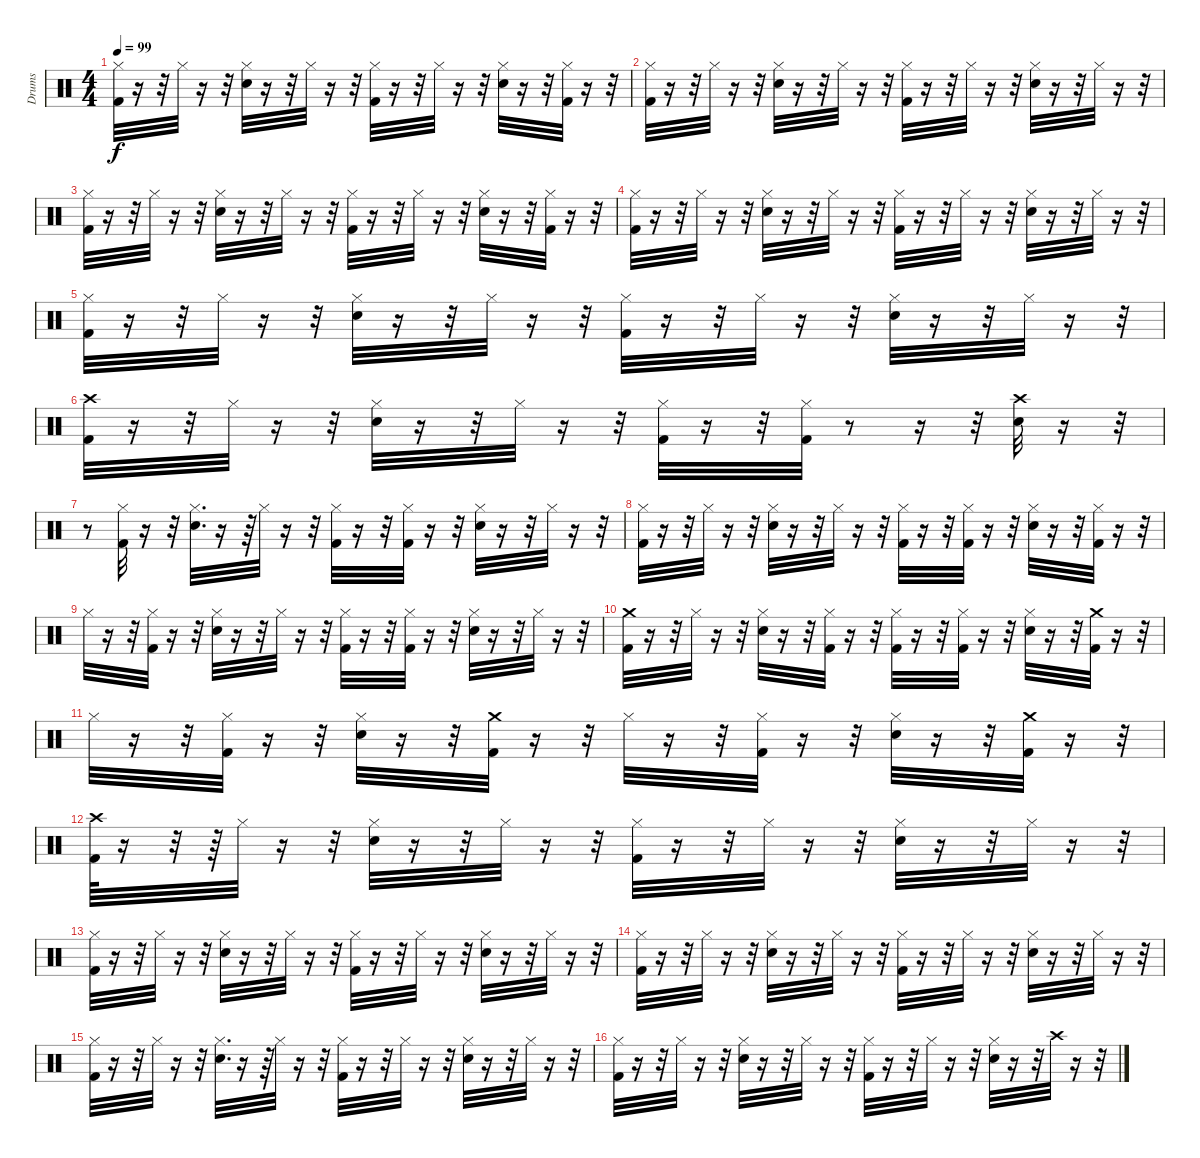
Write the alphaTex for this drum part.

\track ("Drums" "Drums") {instrument percussion}
\staff {score}
\articulation defaults
\ts (4 4)
\tempo 99
\clef neutral
\ks c
("Hi-Hat (closed)" "Kick (hit) 2").32{dy f} r.16 r.32 "Hi-Hat (closed)".32 r.16 r.32 ("Hi-Hat (closed)" "Snare (hit) 2").32 r.16 r.32 "Hi-Hat (closed)".32 r.16 r.32 ("Hi-Hat (closed)" "Kick (hit) 2").32 r.16 r.32 "Hi-Hat (closed)".32 r.16 r.32 ("Hi-Hat (closed)" "Snare (hit) 2").32 r.16 r.32 ("Hi-Hat (closed)" "Kick (hit) 2").32 r.16 r.32 |
("Hi-Hat (closed)" "Kick (hit) 2").32 r.16 r.32 "Hi-Hat (closed)".32 r.16 r.32 ("Hi-Hat (closed)" "Snare (hit) 2").32 r.16 r.32 "Hi-Hat (closed)".32 r.16 r.32 ("Hi-Hat (closed)" "Kick (hit) 2").32 r.16 r.32 "Hi-Hat (closed)".32 r.16 r.32 ("Hi-Hat (closed)" "Snare (hit) 2").32 r.16 r.32 "Hi-Hat (closed)".32 r.16 r.32 |
("Hi-Hat (closed)" "Kick (hit) 2").32 r.16 r.32 "Hi-Hat (closed)".32 r.16 r.32 ("Hi-Hat (closed)" "Snare (hit) 2").32 r.16 r.32 "Hi-Hat (closed)".32 r.16 r.32 ("Hi-Hat (closed)" "Kick (hit) 2").32 r.16 r.32 "Hi-Hat (closed)".32 r.16 r.32 ("Hi-Hat (closed)" "Snare (hit) 2").32 r.16 r.32 ("Hi-Hat (closed)" "Kick (hit) 2").32 r.16 r.32 |
("Hi-Hat (closed)" "Kick (hit) 2").32 r.16 r.32 "Hi-Hat (closed)".32 r.16 r.32 ("Hi-Hat (closed)" "Snare (hit) 2").32 r.16 r.32 "Hi-Hat (closed)".32 r.16 r.32 ("Hi-Hat (closed)" "Kick (hit) 2").32 r.16 r.32 "Hi-Hat (closed)".32 r.16 r.32 ("Hi-Hat (closed)" "Snare (hit) 2").32 r.16 r.32 "Hi-Hat (closed)".32 r.16 r.32 |
("Hi-Hat (closed)" "Kick (hit) 2").32 r.16 r.32 "Hi-Hat (closed)".32 r.16 r.32 ("Hi-Hat (closed)" "Snare (hit) 2").32 r.16 r.32 "Hi-Hat (closed)".32 r.16 r.32 ("Hi-Hat (closed)" "Kick (hit) 2").32 r.16 r.32 "Hi-Hat (closed)".32 r.16 r.32 ("Hi-Hat (closed)" "Snare (hit) 2").32 r.16 r.32 "Hi-Hat (closed)".32 r.16 r.32 |
("Crash high (hit)" "Kick (hit) 2").32 r.16 r.32 "Hi-Hat (closed)".32 r.16 r.32 ("Hi-Hat (closed)" "Snare (hit) 2").32 r.16 r.32 "Hi-Hat (closed)".32 r.16 r.32 ("Hi-Hat (closed)" "Kick (hit) 2").32 r.16 r.32 ("Hi-Hat (closed)" "Kick (hit) 2").32 r.8 r.16 r.32 ("Crash high (hit)" "Snare (hit) 2").32 r.16 r.32 |
r.8 ("Hi-Hat (closed)" "Kick (hit) 2").32 r.16 r.32 ("Hi-Hat (closed)" "Snare (hit) 2").32{d} r.16 r.64 "Hi-Hat (closed)".32 r.16 r.32 ("Hi-Hat (closed)" "Kick (hit) 2").32 r.16 r.32 ("Hi-Hat (closed)" "Kick (hit) 2").32 r.16 r.32 ("Hi-Hat (closed)" "Snare (hit) 2").32 r.16 r.32 "Hi-Hat (closed)".32 r.16 r.32 |
("Hi-Hat (closed)" "Kick (hit) 2").32 r.16 r.32 "Hi-Hat (closed)".32 r.16 r.32 ("Hi-Hat (closed)" "Snare (hit) 2").32 r.16 r.32 "Hi-Hat (closed)".32 r.16 r.32 ("Hi-Hat (closed)" "Kick (hit) 2").32 r.16 r.32 ("Hi-Hat (closed)" "Kick (hit) 2").32 r.16 r.32 ("Hi-Hat (closed)" "Snare (hit) 2").32 r.16 r.32 ("Hi-Hat (closed)" "Kick (hit) 2").32 r.16 r.32 |
"Hi-Hat (closed)".32 r.16 r.32 ("Hi-Hat (closed)" "Kick (hit) 2").32 r.16 r.32 ("Hi-Hat (closed)" "Snare (hit) 2").32 r.16 r.32 "Hi-Hat (closed)".32 r.16 r.32 ("Hi-Hat (closed)" "Kick (hit) 2").32 r.16 r.32 ("Hi-Hat (closed)" "Kick (hit) 2").32 r.16 r.32 ("Hi-Hat (closed)" "Snare (hit) 2").32 r.16 r.32 "Hi-Hat (closed)".32 r.16 r.32 |
("Crash medium (hit)" "Kick (hit) 2").32 r.16 r.32 "Hi-Hat (closed)".32 r.16 r.32 ("Hi-Hat (closed)" "Snare (hit) 2").32 r.16 r.32 ("Hi-Hat (closed)" "Kick (hit) 2").32 r.16 r.32 ("Hi-Hat (closed)" "Kick (hit) 2").32 r.16 r.32 ("Hi-Hat (closed)" "Kick (hit) 2").32 r.16 r.32 ("Hi-Hat (closed)" "Snare (hit) 2").32 r.16 r.32 ("Crash medium (hit)" "Kick (hit) 2").32 r.16 r.32 |
"Hi-Hat (closed)".32 r.16 r.32 ("Hi-Hat (closed)" "Kick (hit) 2").32 r.16 r.32 ("Hi-Hat (closed)" "Snare (hit) 2").32 r.16 r.32 ("Crash medium (hit)" "Kick (hit) 2").32 r.16 r.32 "Hi-Hat (closed)".32 r.16 r.32 ("Hi-Hat (closed)" "Kick (hit) 2").32 r.16 r.32 ("Hi-Hat (closed)" "Snare (hit) 2").32 r.16 r.32 ("Crash medium (hit)" "Kick (hit) 2").32 r.16 r.32 |
("Crash high (hit)" "Kick (hit) 2").64 r.16 r.32 r.64 "Hi-Hat (closed)".32 r.16 r.32 ("Hi-Hat (closed)" "Snare (hit) 2").32 r.16 r.32 "Hi-Hat (closed)".32 r.16 r.32 ("Hi-Hat (closed)" "Kick (hit) 2").32 r.16 r.32 "Hi-Hat (closed)".32 r.16 r.32 ("Hi-Hat (closed)" "Snare (hit) 2").32 r.16 r.32 "Hi-Hat (closed)".32 r.16 r.32 |
("Hi-Hat (closed)" "Kick (hit) 2").32 r.16 r.32 "Hi-Hat (closed)".32 r.16 r.32 ("Hi-Hat (closed)" "Snare (hit) 2").32 r.16 r.32 "Hi-Hat (closed)".32 r.16 r.32 ("Hi-Hat (closed)" "Kick (hit) 2").32 r.16 r.32 "Hi-Hat (closed)".32 r.16 r.32 ("Hi-Hat (closed)" "Snare (hit) 2").32 r.16 r.32 "Hi-Hat (closed)".32 r.16 r.32 |
("Hi-Hat (closed)" "Kick (hit) 2").32 r.16 r.32 "Hi-Hat (closed)".32 r.16 r.32 ("Hi-Hat (closed)" "Snare (hit) 2").32 r.16 r.32 "Hi-Hat (closed)".32 r.16 r.32 ("Hi-Hat (closed)" "Kick (hit) 2").32 r.16 r.32 "Hi-Hat (closed)".32 r.16 r.32 ("Hi-Hat (closed)" "Snare (hit) 2").32 r.16 r.32 "Hi-Hat (closed)".32 r.16 r.32 |
("Hi-Hat (closed)" "Kick (hit) 2").32 r.16 r.32 "Hi-Hat (closed)".32 r.16 r.32 ("Hi-Hat (closed)" "Snare (hit) 2").32{d} r.16 r.64 "Hi-Hat (closed)".32 r.16 r.32 ("Hi-Hat (closed)" "Kick (hit) 2").32 r.16 r.32 "Hi-Hat (closed)".32 r.16 r.32 ("Hi-Hat (closed)" "Snare (hit) 2").32 r.16 r.32 "Hi-Hat (closed)".32 r.16 r.32 |
("Hi-Hat (closed)" "Kick (hit) 2").32 r.16 r.32 "Hi-Hat (closed)".32 r.16 r.32 ("Hi-Hat (closed)" "Snare (hit) 2").32 r.16 r.32 "Hi-Hat (closed)".32 r.16 r.32 ("Hi-Hat (closed)" "Kick (hit) 2").32 r.16 r.32 "Hi-Hat (closed)".32 r.16 r.32 ("Hi-Hat (closed)" "Snare (hit) 2").32 r.16 r.32 "Crash high (hit)".32 r.16 r.32
